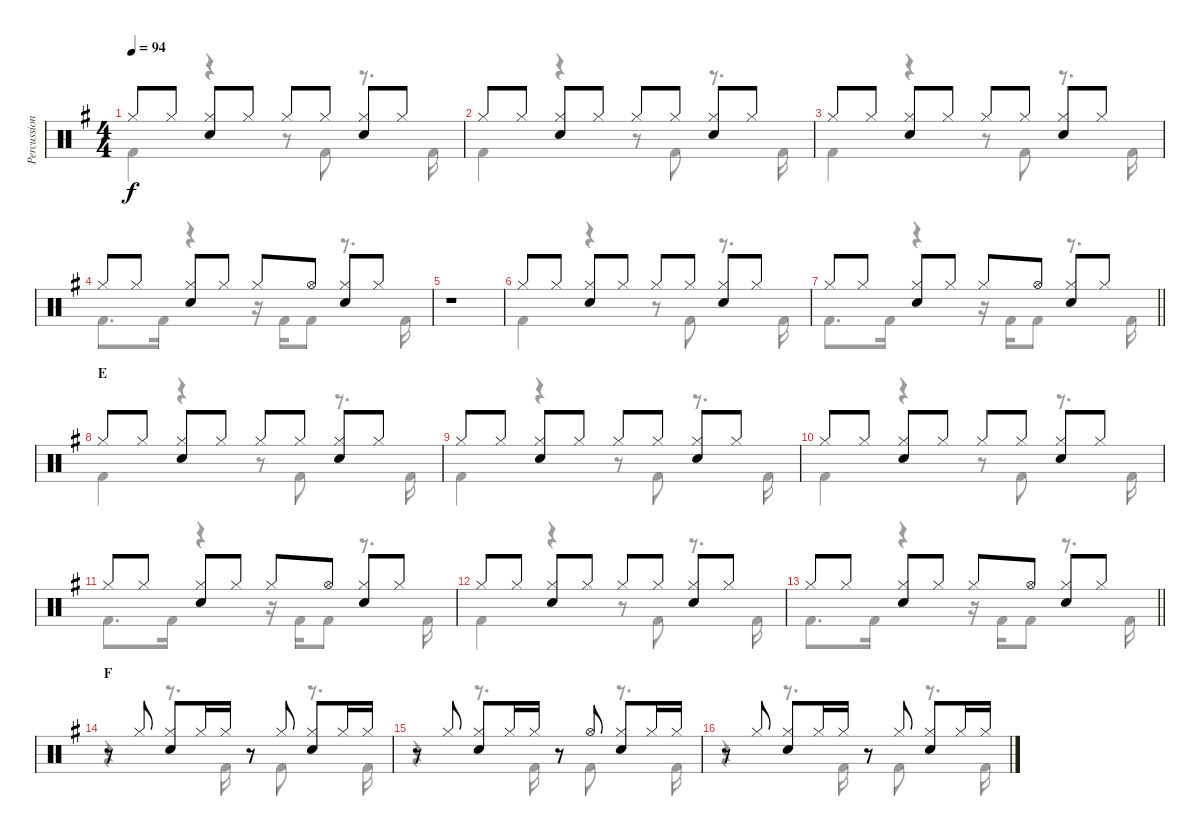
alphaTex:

\track ("Percussion" "Percussion") {instrument percussion}
\staff {score}
\articulation defaults
\voice
\ts (4 4)
\tempo 94
\clef neutral
\ks g "Hi-Hat (closed)".8{dy f} "Hi-Hat (closed)".8
("Hi-Hat (closed)" "Electric Snare (hit)").8 "Hi-Hat (closed)".8 "Hi-Hat (closed)".8 "Hi-Hat (closed)".8 ("Hi-Hat (closed)" "Electric Snare (hit)").8 "Hi-Hat (closed)".8 |
"Hi-Hat (closed)".8 "Hi-Hat (closed)".8 ("Hi-Hat (closed)" "Electric Snare (hit)").8 "Hi-Hat (closed)".8 "Hi-Hat (closed)".8 "Hi-Hat (closed)".8 ("Hi-Hat (closed)" "Electric Snare (hit)").8 "Hi-Hat (closed)".8 |
"Hi-Hat (closed)".8 "Hi-Hat (closed)".8 ("Hi-Hat (closed)" "Electric Snare (hit)").8 "Hi-Hat (closed)".8 "Hi-Hat (closed)".8 "Hi-Hat (closed)".8 ("Hi-Hat (closed)" "Electric Snare (hit)").8 "Hi-Hat (closed)".8 |
"Hi-Hat (closed)".8 "Hi-Hat (closed)".8 ("Hi-Hat (closed)" "Electric Snare (hit)").8 "Hi-Hat (closed)".8 "Hi-Hat (closed)".8 "Hi-Hat (open)".8 ("Hi-Hat (closed)" "Electric Snare (hit)").8 "Hi-Hat (closed)".8 |
r.1 |
"Hi-Hat (closed)".8 "Hi-Hat (closed)".8 ("Hi-Hat (closed)" "Electric Snare (hit)").8 "Hi-Hat (closed)".8 "Hi-Hat (closed)".8 "Hi-Hat (closed)".8 ("Hi-Hat (closed)" "Electric Snare (hit)").8 "Hi-Hat (closed)".8 |
\barLineRight lightlight "Hi-Hat (closed)".8 "Hi-Hat (closed)".8
("Hi-Hat (closed)" "Electric Snare (hit)").8 "Hi-Hat (closed)".8 "Hi-Hat (closed)".8 "Hi-Hat (open)".8 ("Hi-Hat (closed)" "Electric Snare (hit)").8 "Hi-Hat (closed)".8 |
\section ("" "E")
"Hi-Hat (closed)".8 "Hi-Hat (closed)".8 ("Hi-Hat (closed)" "Electric Snare (hit)").8 "Hi-Hat (closed)".8 "Hi-Hat (closed)".8 "Hi-Hat (closed)".8 ("Hi-Hat (closed)" "Electric Snare (hit)").8 "Hi-Hat (closed)".8 |
"Hi-Hat (closed)".8 "Hi-Hat (closed)".8 ("Hi-Hat (closed)" "Electric Snare (hit)").8 "Hi-Hat (closed)".8 "Hi-Hat (closed)".8 "Hi-Hat (closed)".8 ("Hi-Hat (closed)" "Electric Snare (hit)").8 "Hi-Hat (closed)".8 |
"Hi-Hat (closed)".8 "Hi-Hat (closed)".8 ("Hi-Hat (closed)" "Electric Snare (hit)").8 "Hi-Hat (closed)".8 "Hi-Hat (closed)".8 "Hi-Hat (closed)".8 ("Hi-Hat (closed)" "Electric Snare (hit)").8 "Hi-Hat (closed)".8 |
"Hi-Hat (closed)".8 "Hi-Hat (closed)".8 ("Hi-Hat (closed)" "Electric Snare (hit)").8 "Hi-Hat (closed)".8 "Hi-Hat (closed)".8 "Hi-Hat (open)".8 ("Hi-Hat (closed)" "Electric Snare (hit)").8 "Hi-Hat (closed)".8 |
"Hi-Hat (closed)".8 "Hi-Hat (closed)".8 ("Hi-Hat (closed)" "Electric Snare (hit)").8 "Hi-Hat (closed)".8 "Hi-Hat (closed)".8 "Hi-Hat (closed)".8 ("Hi-Hat (closed)" "Electric Snare (hit)").8 "Hi-Hat (closed)".8 |
\barLineRight lightlight "Hi-Hat (closed)".8 "Hi-Hat (closed)".8
("Hi-Hat (closed)" "Electric Snare (hit)").8 "Hi-Hat (closed)".8 "Hi-Hat (closed)".8 "Hi-Hat (open)".8 ("Hi-Hat (closed)" "Electric Snare (hit)").8 "Hi-Hat (closed)".8 |
\section ("" "F")
r.8 "Hi-Hat (closed)".8 ("Hi-Hat (closed)" "Electric Snare (hit)").8 "Hi-Hat (closed)".16 "Hi-Hat (closed)".16 r.8 "Hi-Hat (closed)".8 ("Hi-Hat (closed)" "Electric Snare (hit)").8 "Hi-Hat (closed)".16 "Hi-Hat (closed)".16 |
r.8 "Hi-Hat (closed)".8 ("Hi-Hat (closed)" "Electric Snare (hit)").8 "Hi-Hat (closed)".16 "Hi-Hat (closed)".16 r.8 "Hi-Hat (open)".8 ("Hi-Hat (closed)" "Electric Snare (hit)").8 "Hi-Hat (closed)".16 "Hi-Hat (closed)".16 |
r.8 "Hi-Hat (closed)".8 ("Hi-Hat (closed)" "Electric Snare (hit)").8 "Hi-Hat (closed)".16 "Hi-Hat (closed)".16 r.8 "Hi-Hat (closed)".8 ("Hi-Hat (closed)" "Electric Snare (hit)").8 "Hi-Hat (closed)".16 "Hi-Hat (closed)".16
\voice
\clef neutral
\ottava regular
\simile none
\ks g "Kick (hit) 2".4{dy f}
r.4 r.8 "Kick (hit) 2".8 r.8{d} "Kick (hit) 2".16 |
"Kick (hit) 2".4 r.4 r.8 "Kick (hit) 2".8 r.8{d} "Kick (hit) 2".16 |
"Kick (hit) 2".4 r.4 r.8 "Kick (hit) 2".8 r.8{d} "Kick (hit) 2".16 |
"Kick (hit) 2".8{d} "Kick (hit) 2".16 r.4 r.16 "Kick (hit) 2".16 "Kick (hit) 2".8 r.8{d} "Kick (hit) 2".16 |
|
"Kick (hit) 2".4 r.4 r.8 "Kick (hit) 2".8 r.8{d} "Kick (hit) 2".16 |
\barLineRight lightlight "Kick (hit) 2".8{d} "Kick (hit) 2".16
r.4 r.16 "Kick (hit) 2".16 "Kick (hit) 2".8 r.8{d} "Kick (hit) 2".16 |
"Kick (hit) 2".4 r.4 r.8 "Kick (hit) 2".8 r.8{d} "Kick (hit) 2".16 |
"Kick (hit) 2".4 r.4 r.8 "Kick (hit) 2".8 r.8{d} "Kick (hit) 2".16 |
"Kick (hit) 2".4 r.4 r.8 "Kick (hit) 2".8 r.8{d} "Kick (hit) 2".16 |
"Kick (hit) 2".8{d} "Kick (hit) 2".16 r.4 r.16 "Kick (hit) 2".16 "Kick (hit) 2".8 r.8{d} "Kick (hit) 2".16 |
"Kick (hit) 2".4 r.4 r.8 "Kick (hit) 2".8 r.8{d} "Kick (hit) 2".16 |
\barLineRight lightlight "Kick (hit) 2".8{d} "Kick (hit) 2".16
r.4 r.16 "Kick (hit) 2".16 "Kick (hit) 2".8 r.8{d} "Kick (hit) 2".16 |
r.4 r.8{d} "Kick (hit) 2".16 r.8 "Kick (hit) 2".8 r.8{d} "Kick (hit) 2".16 |
r.4 r.8{d} "Kick (hit) 2".16 r.8 "Kick (hit) 2".8 r.8{d} "Kick (hit) 2".16 |
r.4 r.8{d} "Kick (hit) 2".16 r.8 "Kick (hit) 2".8 r.8{d} "Kick (hit) 2".16
